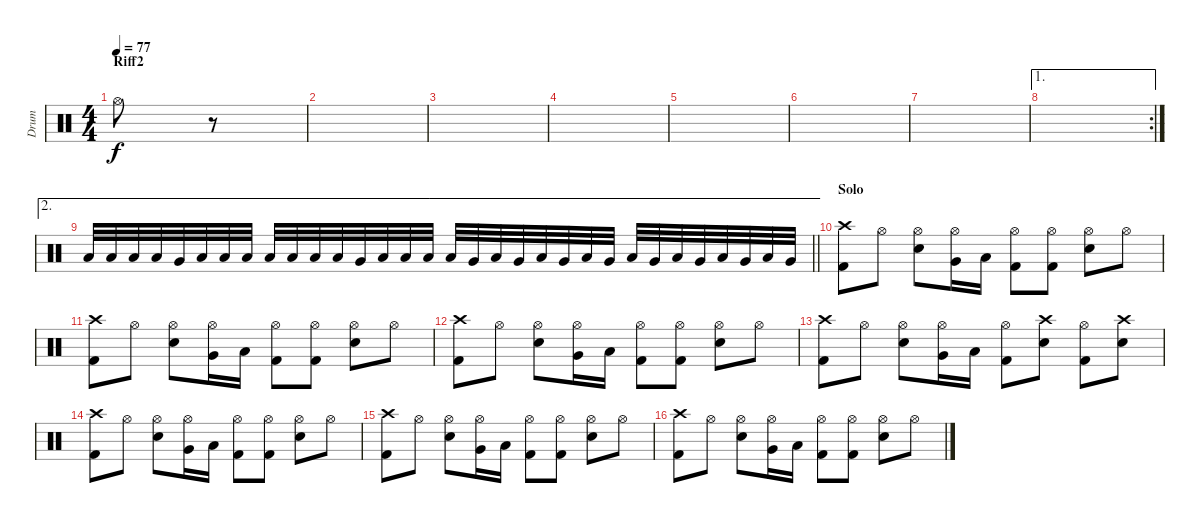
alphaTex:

\track ("Drum" "Drum") {instrument percussion}
\staff {score}
\articulation defaults
\ts (4 4)
\section ("" "Riff2")
\tempo 77
\clef neutral
\ks c "Hi-Hat (open)".8{dy f}
r.8 |
|
|
|
|
|
|
\ae 1
\rc 2
|
\ae 2
\barLineRight lightlight "Low Floor Tom (hit)".32 "Low Floor Tom (hit)".32 "Low Floor Tom (hit)".32 "Low Floor Tom (hit)".32 "Very Low Tom (hit)".32 "Low Floor Tom (hit)".32 "Low Floor Tom (hit)".32 "Low Floor Tom (hit)".32 "Low Floor Tom (hit)".32 "Low Floor Tom (hit)".32 "Low Floor Tom (hit)".32 "Low Floor Tom (hit)".32 "Very Low Tom (hit)".32 "Low Floor Tom (hit)".32 "Low Floor Tom (hit)".32 "Low Floor Tom (hit)".32 "Low Tom (hit)".32 "Very Low Tom (hit)".32 "Low Tom (hit)".32 "Very Low Tom (hit)".32 "Low Tom (hit)".32 "Very Low Tom (hit)".32 "Low Tom (hit)".32 "Very Low Tom (hit)".32 "Low Tom (hit)".32 "Very Low Tom (hit)".32 "Low Tom (hit)".32 "Very Low Tom (hit)".32 "Low Tom (hit)".32 "Very Low Tom (hit)".32 "Low Tom (hit)".32 "Very Low Tom (hit)".32
|
\section ("" "Solo")
("Crash high (hit)" "Kick (hit) 2").8 "Hi-Hat (open)".8 ("Hi-Hat (open)" "Snare (hit) 2").8 ("Hi-Hat (open)" "Very Low Tom (hit)").16 "Low Tom (hit)".16 ("Hi-Hat (open)" "Kick (hit) 2").8 ("Hi-Hat (open)" "Kick (hit) 2").8 ("Hi-Hat (open)" "Snare (hit) 2").8 "Hi-Hat (open)".8 |
("Crash high (hit)" "Kick (hit) 2").8 "Hi-Hat (open)".8 ("Hi-Hat (open)" "Snare (hit) 2").8 ("Hi-Hat (open)" "Very Low Tom (hit)").16 "Low Tom (hit)".16 ("Hi-Hat (open)" "Kick (hit) 2").8 ("Hi-Hat (open)" "Kick (hit) 2").8 ("Hi-Hat (open)" "Snare (hit) 2").8 "Hi-Hat (open)".8 |
("Crash high (hit)" "Kick (hit) 2").8 "Hi-Hat (open)".8 ("Hi-Hat (open)" "Snare (hit) 2").8 ("Hi-Hat (open)" "Very Low Tom (hit)").16 "Low Tom (hit)".16 ("Hi-Hat (open)" "Kick (hit) 2").8 ("Hi-Hat (open)" "Kick (hit) 2").8 ("Hi-Hat (open)" "Snare (hit) 2").8 "Hi-Hat (open)".8 |
("Crash high (hit)" "Kick (hit) 2").8 "Hi-Hat (open)".8 ("Hi-Hat (open)" "Snare (hit) 2").8 ("Hi-Hat (open)" "Very Low Tom (hit)").16 "Low Tom (hit)".16 ("Hi-Hat (open)" "Kick (hit) 2").8 ("Crash high (hit)" "Snare (hit) 2").8 ("Hi-Hat (open)" "Kick (hit) 2").8 ("Crash high (hit)" "Snare (hit) 2").8 |
("Crash high (hit)" "Kick (hit) 2").8 "Hi-Hat (open)".8 ("Hi-Hat (open)" "Snare (hit) 2").8 ("Hi-Hat (open)" "Very Low Tom (hit)").16 "Low Tom (hit)".16 ("Hi-Hat (open)" "Kick (hit) 2").8 ("Hi-Hat (open)" "Kick (hit) 2").8 ("Hi-Hat (open)" "Snare (hit) 2").8 "Hi-Hat (open)".8 |
("Crash high (hit)" "Kick (hit) 2").8 "Hi-Hat (open)".8 ("Hi-Hat (open)" "Snare (hit) 2").8 ("Hi-Hat (open)" "Very Low Tom (hit)").16 "Low Tom (hit)".16 ("Hi-Hat (open)" "Kick (hit) 2").8 ("Hi-Hat (open)" "Kick (hit) 2").8 ("Hi-Hat (open)" "Snare (hit) 2").8 "Hi-Hat (open)".8 |
("Crash high (hit)" "Kick (hit) 2").8 "Hi-Hat (open)".8 ("Hi-Hat (open)" "Snare (hit) 2").8 ("Hi-Hat (open)" "Very Low Tom (hit)").16 "Low Tom (hit)".16 ("Hi-Hat (open)" "Kick (hit) 2").8 ("Hi-Hat (open)" "Kick (hit) 2").8 ("Hi-Hat (open)" "Snare (hit) 2").8 "Hi-Hat (open)".8
